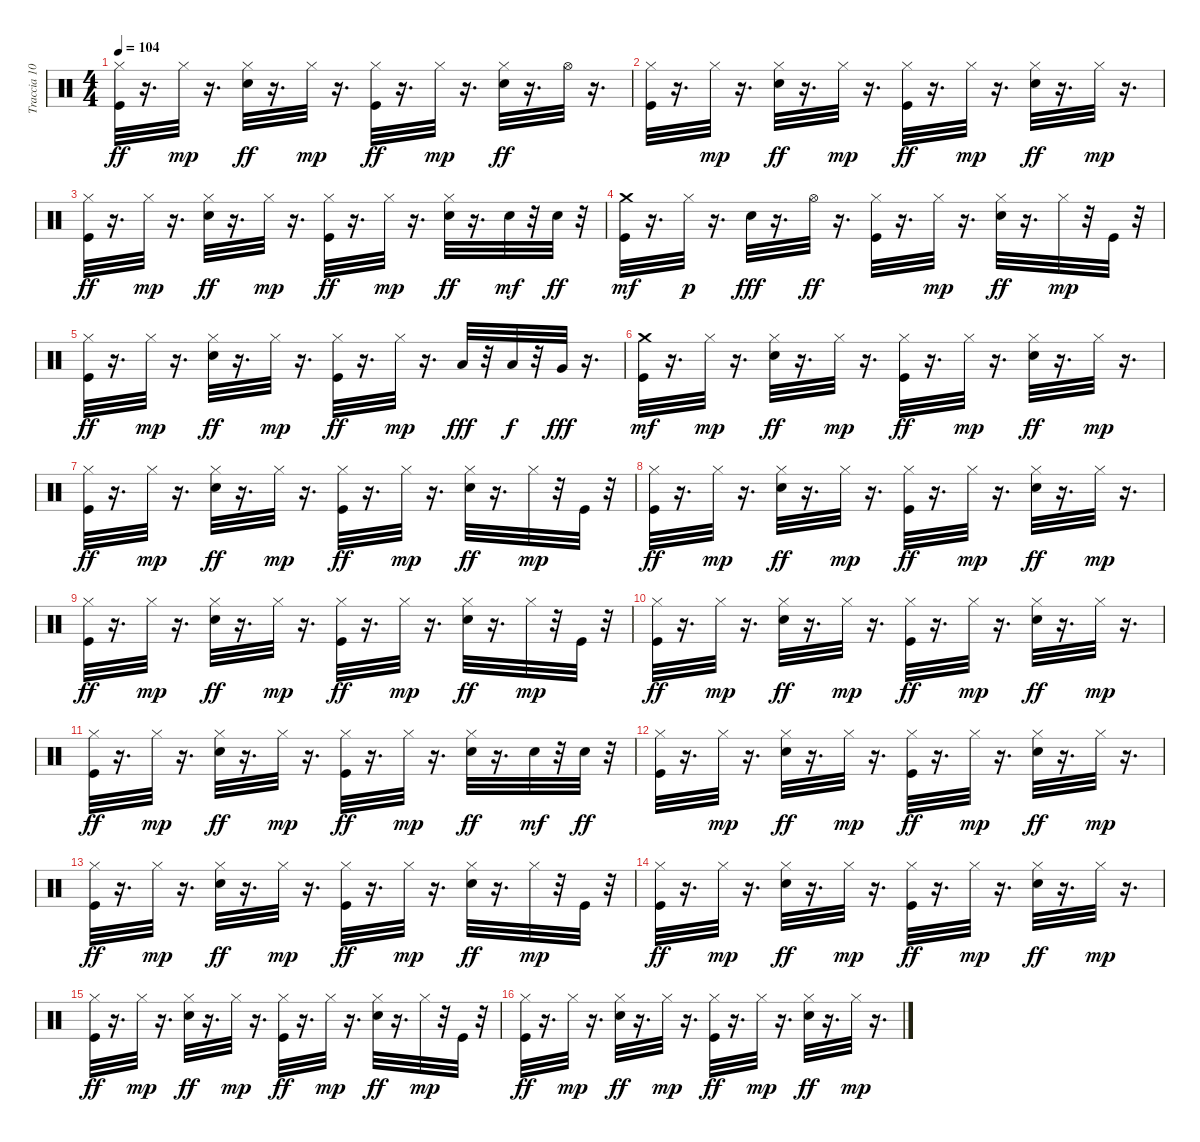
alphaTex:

\track ("Traccia 10" "Traccia 10") {instrument percussion}
\staff {score}
\articulation defaults
\ts (4 4)
\tempo 104
\clef neutral
\ks c
("Kick (hit)" "Hi-Hat (closed)").32{dy ff} r.16{d} "Hi-Hat (closed)".32{dy mp} r.16{d} ("Snare (hit) 2" "Hi-Hat (closed)").32{dy ff} r.16{d} "Hi-Hat (closed)".32{dy mp} r.16{d} ("Kick (hit)" "Hi-Hat (closed)").32{dy ff} r.16{d} "Hi-Hat (closed)".32{dy mp} r.16{d} ("Snare (hit) 2" "Hi-Hat (closed)").32{dy ff} r.16{d} "Hi-Hat (open)".32 r.16{d} |
("Kick (hit)" "Hi-Hat (closed)").32 r.16{d} "Hi-Hat (closed)".32{dy mp} r.16{d} ("Snare (hit) 2" "Hi-Hat (closed)").32{dy ff} r.16{d} "Hi-Hat (closed)".32{dy mp} r.16{d} ("Kick (hit)" "Hi-Hat (closed)").32{dy ff} r.16{d} "Hi-Hat (closed)".32{dy mp} r.16{d} ("Snare (hit) 2" "Hi-Hat (closed)").32{dy ff} r.16{d} "Hi-Hat (closed)".32{dy mp} r.16{d} |
("Kick (hit)" "Hi-Hat (closed)").32{dy ff} r.16{d} "Hi-Hat (closed)".32{dy mp} r.16{d} ("Snare (hit) 2" "Hi-Hat (closed)").32{dy ff} r.16{d} "Hi-Hat (closed)".32{dy mp} r.16{d} ("Kick (hit)" "Hi-Hat (closed)").32{dy ff} r.16{d} "Hi-Hat (closed)".32{dy mp} r.16{d} ("Snare (hit) 2" "Hi-Hat (closed)").32{dy ff} r.16{d} "Snare (hit) 2".32{dy mf} r.32 "Snare (hit) 2".32{dy ff} r.32 |
("Kick (hit)" "Crash medium (hit)").32{dy mf} r.16{d} "Hi-Hat (closed)".32{dy p} r.16{d} "Snare (hit) 2".32{dy fff} r.16{d} "Hi-Hat (open)".32{dy ff} r.16{d} ("Kick (hit)" "Hi-Hat (closed)").32 r.16{d} "Hi-Hat (closed)".32{dy mp} r.16{d} ("Snare (hit) 2" "Hi-Hat (closed)").32{dy ff} r.16{d} "Hi-Hat (closed)".32{dy mp} r.32 "Kick (hit)".32 r.32 |
("Kick (hit)" "Hi-Hat (closed)").32{dy ff} r.16{d} "Hi-Hat (closed)".32{dy mp} r.16{d} ("Snare (hit) 2" "Hi-Hat (closed)").32{dy ff} r.16{d} "Hi-Hat (closed)".32{dy mp} r.16{d} ("Kick (hit)" "Hi-Hat (closed)").32{dy ff} r.16{d} "Hi-Hat (closed)".32{dy mp} r.16{d} "Low Tom (hit)".32{dy fff} r.32 "Low Tom (hit)".32{dy f} r.32 "Very Low Tom (hit)".32{dy fff} r.16{d} |
("Kick (hit)" "Crash medium (hit)").32{dy mf} r.16{d} "Hi-Hat (closed)".32{dy mp} r.16{d} ("Snare (hit) 2" "Hi-Hat (closed)").32{dy ff} r.16{d} "Hi-Hat (closed)".32{dy mp} r.16{d} ("Kick (hit)" "Hi-Hat (closed)").32{dy ff} r.16{d} "Hi-Hat (closed)".32{dy mp} r.16{d} ("Snare (hit) 2" "Hi-Hat (closed)").32{dy ff} r.16{d} "Hi-Hat (closed)".32{dy mp} r.16{d} |
("Kick (hit)" "Hi-Hat (closed)").32{dy ff} r.16{d} "Hi-Hat (closed)".32{dy mp} r.16{d} ("Snare (hit) 2" "Hi-Hat (closed)").32{dy ff} r.16{d} "Hi-Hat (closed)".32{dy mp} r.16{d} ("Kick (hit)" "Hi-Hat (closed)").32{dy ff} r.16{d} "Hi-Hat (closed)".32{dy mp} r.16{d} ("Snare (hit) 2" "Hi-Hat (closed)").32{dy ff} r.16{d} "Hi-Hat (closed)".32{dy mp} r.32 "Kick (hit)".32 r.32 |
("Kick (hit)" "Hi-Hat (closed)").32{dy ff} r.16{d} "Hi-Hat (closed)".32{dy mp} r.16{d} ("Snare (hit) 2" "Hi-Hat (closed)").32{dy ff} r.16{d} "Hi-Hat (closed)".32{dy mp} r.16{d} ("Kick (hit)" "Hi-Hat (closed)").32{dy ff} r.16{d} "Hi-Hat (closed)".32{dy mp} r.16{d} ("Snare (hit) 2" "Hi-Hat (closed)").32{dy ff} r.16{d} "Hi-Hat (closed)".32{dy mp} r.16{d} |
("Kick (hit)" "Hi-Hat (closed)").32{dy ff} r.16{d} "Hi-Hat (closed)".32{dy mp} r.16{d} ("Snare (hit) 2" "Hi-Hat (closed)").32{dy ff} r.16{d} "Hi-Hat (closed)".32{dy mp} r.16{d} ("Kick (hit)" "Hi-Hat (closed)").32{dy ff} r.16{d} "Hi-Hat (closed)".32{dy mp} r.16{d} ("Snare (hit) 2" "Hi-Hat (closed)").32{dy ff} r.16{d} "Hi-Hat (closed)".32{dy mp} r.32 "Kick (hit)".32 r.32 |
("Kick (hit)" "Hi-Hat (closed)").32{dy ff} r.16{d} "Hi-Hat (closed)".32{dy mp} r.16{d} ("Snare (hit) 2" "Hi-Hat (closed)").32{dy ff} r.16{d} "Hi-Hat (closed)".32{dy mp} r.16{d} ("Kick (hit)" "Hi-Hat (closed)").32{dy ff} r.16{d} "Hi-Hat (closed)".32{dy mp} r.16{d} ("Snare (hit) 2" "Hi-Hat (closed)").32{dy ff} r.16{d} "Hi-Hat (closed)".32{dy mp} r.16{d} |
("Kick (hit)" "Hi-Hat (closed)").32{dy ff} r.16{d} "Hi-Hat (closed)".32{dy mp} r.16{d} ("Snare (hit) 2" "Hi-Hat (closed)").32{dy ff} r.16{d} "Hi-Hat (closed)".32{dy mp} r.16{d} ("Kick (hit)" "Hi-Hat (closed)").32{dy ff} r.16{d} "Hi-Hat (closed)".32{dy mp} r.16{d} ("Snare (hit) 2" "Hi-Hat (closed)").32{dy ff} r.16{d} "Snare (hit) 2".32{dy mf} r.32 "Snare (hit) 2".32{dy ff} r.32 |
("Kick (hit)" "Hi-Hat (closed)").32 r.16{d} "Hi-Hat (closed)".32{dy mp} r.16{d} ("Snare (hit) 2" "Hi-Hat (closed)").32{dy ff} r.16{d} "Hi-Hat (closed)".32{dy mp} r.16{d} ("Kick (hit)" "Hi-Hat (closed)").32{dy ff} r.16{d} "Hi-Hat (closed)".32{dy mp} r.16{d} ("Snare (hit) 2" "Hi-Hat (closed)").32{dy ff} r.16{d} "Hi-Hat (closed)".32{dy mp} r.16{d} |
("Kick (hit)" "Hi-Hat (closed)").32{dy ff} r.16{d} "Hi-Hat (closed)".32{dy mp} r.16{d} ("Snare (hit) 2" "Hi-Hat (closed)").32{dy ff} r.16{d} "Hi-Hat (closed)".32{dy mp} r.16{d} ("Kick (hit)" "Hi-Hat (closed)").32{dy ff} r.16{d} "Hi-Hat (closed)".32{dy mp} r.16{d} ("Snare (hit) 2" "Hi-Hat (closed)").32{dy ff} r.16{d} "Hi-Hat (closed)".32{dy mp} r.32 "Kick (hit)".32 r.32 |
("Kick (hit)" "Hi-Hat (closed)").32{dy ff} r.16{d} "Hi-Hat (closed)".32{dy mp} r.16{d} ("Snare (hit) 2" "Hi-Hat (closed)").32{dy ff} r.16{d} "Hi-Hat (closed)".32{dy mp} r.16{d} ("Kick (hit)" "Hi-Hat (closed)").32{dy ff} r.16{d} "Hi-Hat (closed)".32{dy mp} r.16{d} ("Snare (hit) 2" "Hi-Hat (closed)").32{dy ff} r.16{d} "Hi-Hat (closed)".32{dy mp} r.16{d} |
("Kick (hit)" "Hi-Hat (closed)").32{dy ff} r.16{d} "Hi-Hat (closed)".32{dy mp} r.16{d} ("Snare (hit) 2" "Hi-Hat (closed)").32{dy ff} r.16{d} "Hi-Hat (closed)".32{dy mp} r.16{d} ("Kick (hit)" "Hi-Hat (closed)").32{dy ff} r.16{d} "Hi-Hat (closed)".32{dy mp} r.16{d} ("Snare (hit) 2" "Hi-Hat (closed)").32{dy ff} r.16{d} "Hi-Hat (closed)".32{dy mp} r.32 "Kick (hit)".32 r.32 |
("Kick (hit)" "Hi-Hat (closed)").32{dy ff} r.16{d} "Hi-Hat (closed)".32{dy mp} r.16{d} ("Snare (hit) 2" "Hi-Hat (closed)").32{dy ff} r.16{d} "Hi-Hat (closed)".32{dy mp} r.16{d} ("Kick (hit)" "Hi-Hat (closed)").32{dy ff} r.16{d} "Hi-Hat (closed)".32{dy mp} r.16{d} ("Snare (hit) 2" "Hi-Hat (closed)").32{dy ff} r.16{d} "Hi-Hat (closed)".32{dy mp} r.16{d}
